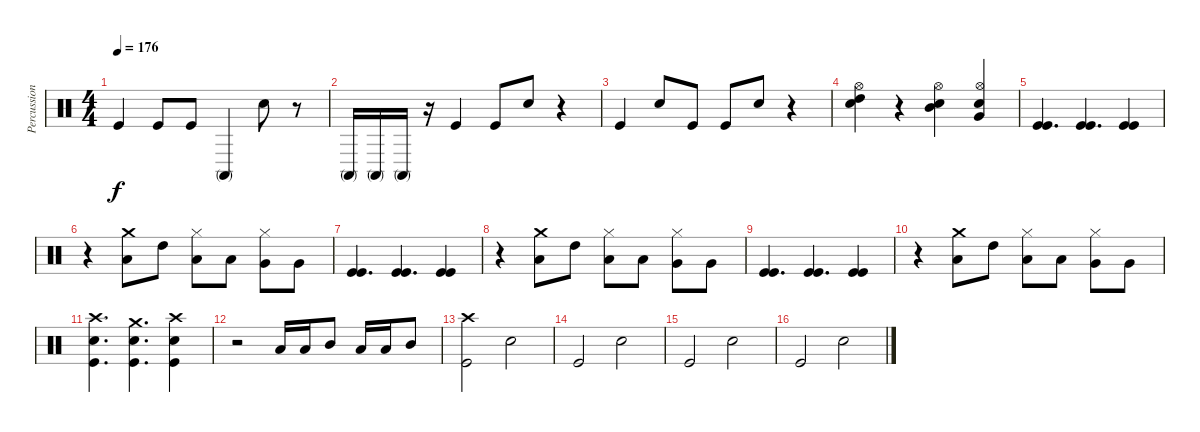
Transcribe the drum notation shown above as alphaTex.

\track ("Percussions" "Percussion") {instrument percussion}
\staff {score}
\articulation defaults
\ts (4 4)
\tempo 176
\clef neutral
\ks c "Kick (hit)".4{dy f} "Kick (hit)".8 "Kick (hit)".8 "Conga high (mute)".4 "Snare (hit) 2".8
r.8 |
"Conga high (mute)".16 "Conga high (mute)".16 "Conga high (mute)".16 r.16 "Kick (hit)".4 "Kick (hit)".8 "Snare (hit) 2".8 r.4 |
"Kick (hit)".4 "Snare (hit) 2".8 "Kick (hit)".8 "Kick (hit)".8 "Snare (hit) 2".8 r.4 |
("Hi-Hat (open)" "Snare (hit) 2" "High Tom (hit)").4 r.4 ("Hi-Hat (open)" "Snare (hit) 2" "Mid Tom (hit)").4 ("Hi-Hat (open)" "Snare (hit) 2" "Very Low Tom (hit)").4 |
("Kick (hit)" "Kick (hit)").4{d} ("Kick (hit)" "Kick (hit)").4{d} ("Kick (hit)" "Kick (hit)").4 |
r.4 ("Low Tom (hit)" "Crash medium (hit)").8 "High Tom (hit)".8 ("Low Tom (hit)" "Hi-Hat (closed)").8 "Low Tom (hit)".8 ("Very Low Tom (hit)" "Hi-Hat (closed)").8 "Very Low Tom (hit)".8 |
("Kick (hit)" "Kick (hit)").4{d} ("Kick (hit)" "Kick (hit)").4{d} ("Kick (hit)" "Kick (hit)").4 |
r.4 ("Low Tom (hit)" "Crash medium (hit)").8 "High Tom (hit)".8 ("Low Tom (hit)" "Hi-Hat (closed)").8 "Low Tom (hit)".8 ("Very Low Tom (hit)" "Hi-Hat (closed)").8 "Very Low Tom (hit)".8 |
("Kick (hit)" "Kick (hit)").4{d} ("Kick (hit)" "Kick (hit)").4{d} ("Kick (hit)" "Kick (hit)").4 |
r.4 ("Low Tom (hit)" "Crash medium (hit)").8 "High Tom (hit)".8 ("Low Tom (hit)" "Hi-Hat (closed)").8 "Low Tom (hit)".8 ("Very Low Tom (hit)" "Hi-Hat (closed)").8 "Very Low Tom (hit)".8 |
("Crash high (hit)" "Kick (hit)" "Snare (hit) 2").4{d} ("Crash medium (hit)" "Kick (hit)" "Snare (hit) 2").4{d} ("Crash high (hit)" "Kick (hit)" "Snare (hit) 2").4 |
r.2 "Low Tom (hit)".16 "Low Tom (hit)".16 "Mid Tom (hit)".8 "Low Tom (hit)".16 "Low Tom (hit)".16 "Mid Tom (hit)".8 |
("Crash high (hit)" "Kick (hit)").2 "Snare (hit) 2".2 |
"Kick (hit)".2 "Snare (hit) 2".2 |
"Kick (hit)".2 "Snare (hit) 2".2 |
"Kick (hit)".2 "Snare (hit) 2".2
